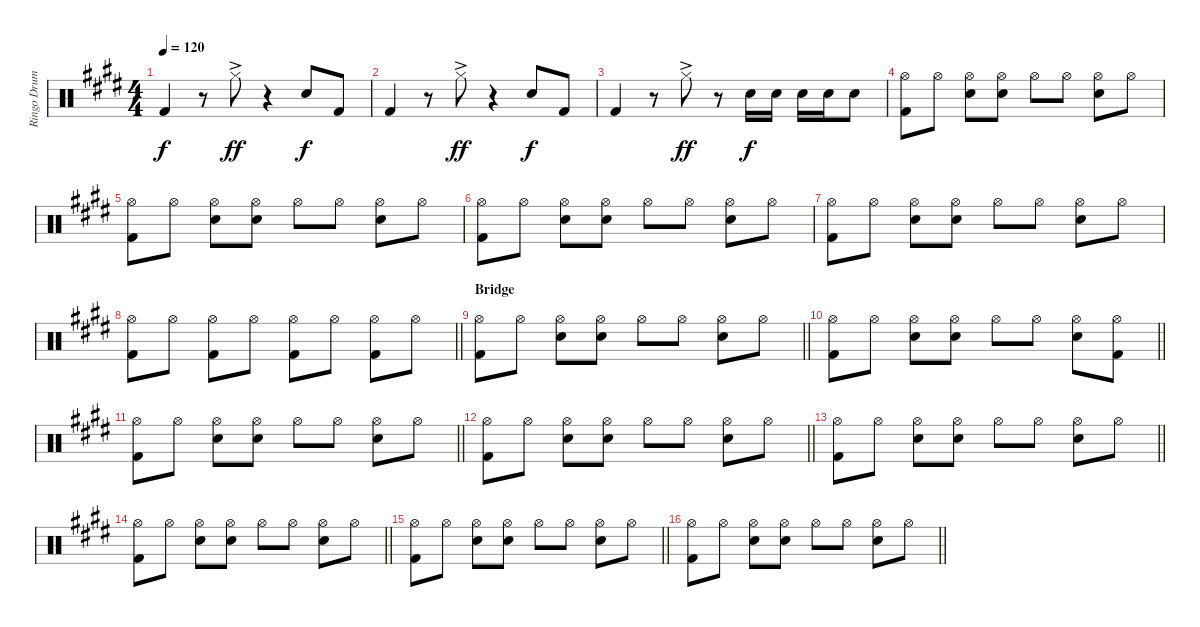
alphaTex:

\track ("Ringo Drums" "Ringo Drum") {instrument percussion}
\staff {score}
\articulation defaults
\ts (4 4)
\tempo 120
\clef neutral
\ks e "Kick (hit) 2".4{dy f}
r.8 "Hi-Hat (closed)"{ac}.8{dy ff} r.4 "Snare (hit) 2".8{dy f} "Kick (hit) 2".8 |
"Kick (hit) 2".4 r.8 "Hi-Hat (closed)"{ac}.8{dy ff} r.4 "Snare (hit) 2".8{dy f} "Kick (hit) 2".8 |
"Kick (hit) 2".4 r.8 "Hi-Hat (closed)"{ac}.8{dy ff} r.8 "Snare (hit) 2".16{dy f} "Electric Snare (hit)".16 "Snare (hit) 2".16 "Electric Snare (hit)".16 "Snare (hit) 2".8 |
("Hi-Hat (open)" "Kick (hit) 2").8 "Hi-Hat (open)".8 ("Hi-Hat (open)" "Snare (hit) 2").8 ("Hi-Hat (open)" "Snare (hit) 2").8 "Hi-Hat (open)".8 "Hi-Hat (open)".8 ("Hi-Hat (open)" "Snare (hit) 2").8 "Hi-Hat (open)".8 |
("Hi-Hat (open)" "Kick (hit) 2").8 "Hi-Hat (open)".8 ("Hi-Hat (open)" "Snare (hit) 2").8 ("Hi-Hat (open)" "Snare (hit) 2").8 "Hi-Hat (open)".8 "Hi-Hat (open)".8 ("Hi-Hat (open)" "Snare (hit) 2").8 "Hi-Hat (open)".8 |
("Hi-Hat (open)" "Kick (hit) 2").8 "Hi-Hat (open)".8 ("Hi-Hat (open)" "Snare (hit) 2").8 ("Hi-Hat (open)" "Snare (hit) 2").8 "Hi-Hat (open)".8 "Hi-Hat (open)".8 ("Hi-Hat (open)" "Snare (hit) 2").8 "Hi-Hat (open)".8 |
("Hi-Hat (open)" "Kick (hit) 2").8 "Hi-Hat (open)".8 ("Hi-Hat (open)" "Snare (hit) 2").8 ("Hi-Hat (open)" "Snare (hit) 2").8 "Hi-Hat (open)".8 "Hi-Hat (open)".8 ("Hi-Hat (open)" "Snare (hit) 2").8 "Hi-Hat (open)".8 |
\barLineRight lightlight
("Hi-Hat (open)" "Kick (hit) 2").8 "Hi-Hat (open)".8 ("Hi-Hat (open)" "Kick (hit) 2").8 "Hi-Hat (open)".8 ("Hi-Hat (open)" "Kick (hit) 2").8 "Hi-Hat (open)".8 ("Hi-Hat (open)" "Kick (hit) 2").8 "Hi-Hat (open)".8 |
\section ("" "Bridge")
\barLineRight lightlight
("Hi-Hat (open)" "Kick (hit) 2").8 "Hi-Hat (open)".8 ("Hi-Hat (open)" "Snare (hit) 2").8 ("Hi-Hat (open)" "Snare (hit) 2").8 "Hi-Hat (open)".8 "Hi-Hat (open)".8 ("Hi-Hat (open)" "Snare (hit) 2").8 "Hi-Hat (open)".8 |
\barLineRight lightlight
("Hi-Hat (open)" "Kick (hit) 2").8 "Hi-Hat (open)".8 ("Hi-Hat (open)" "Snare (hit) 2").8 ("Hi-Hat (open)" "Snare (hit) 2").8 "Hi-Hat (open)".8 "Hi-Hat (open)".8 ("Hi-Hat (open)" "Snare (hit) 2").8 ("Hi-Hat (open)" "Kick (hit) 2").8 |
\barLineRight lightlight
("Hi-Hat (open)" "Kick (hit) 2").8 "Hi-Hat (open)".8 ("Hi-Hat (open)" "Snare (hit) 2").8 ("Hi-Hat (open)" "Snare (hit) 2").8 "Hi-Hat (open)".8 "Hi-Hat (open)".8 ("Hi-Hat (open)" "Snare (hit) 2").8 "Hi-Hat (open)".8 |
\barLineRight lightlight
("Hi-Hat (open)" "Kick (hit) 2").8 "Hi-Hat (open)".8 ("Hi-Hat (open)" "Snare (hit) 2").8 ("Hi-Hat (open)" "Snare (hit) 2").8 "Hi-Hat (open)".8 "Hi-Hat (open)".8 ("Hi-Hat (open)" "Snare (hit) 2").8 "Hi-Hat (open)".8 |
\barLineRight lightlight
("Hi-Hat (open)" "Kick (hit) 2").8 "Hi-Hat (open)".8 ("Hi-Hat (open)" "Snare (hit) 2").8 ("Hi-Hat (open)" "Snare (hit) 2").8 "Hi-Hat (open)".8 "Hi-Hat (open)".8 ("Hi-Hat (open)" "Snare (hit) 2").8 "Hi-Hat (open)".8 |
\barLineRight lightlight
("Hi-Hat (open)" "Kick (hit) 2").8 "Hi-Hat (open)".8 ("Hi-Hat (open)" "Snare (hit) 2").8 ("Hi-Hat (open)" "Snare (hit) 2").8 "Hi-Hat (open)".8 "Hi-Hat (open)".8 ("Hi-Hat (open)" "Snare (hit) 2").8 "Hi-Hat (open)".8 |
\barLineRight lightlight
("Hi-Hat (open)" "Kick (hit) 2").8 "Hi-Hat (open)".8 ("Hi-Hat (open)" "Snare (hit) 2").8 ("Hi-Hat (open)" "Snare (hit) 2").8 "Hi-Hat (open)".8 "Hi-Hat (open)".8 ("Hi-Hat (open)" "Snare (hit) 2").8 "Hi-Hat (open)".8 |
\barLineRight lightlight
("Hi-Hat (open)" "Kick (hit) 2").8 "Hi-Hat (open)".8 ("Hi-Hat (open)" "Snare (hit) 2").8 ("Hi-Hat (open)" "Snare (hit) 2").8 "Hi-Hat (open)".8 "Hi-Hat (open)".8 ("Hi-Hat (open)" "Snare (hit) 2").8 "Hi-Hat (open)".8
